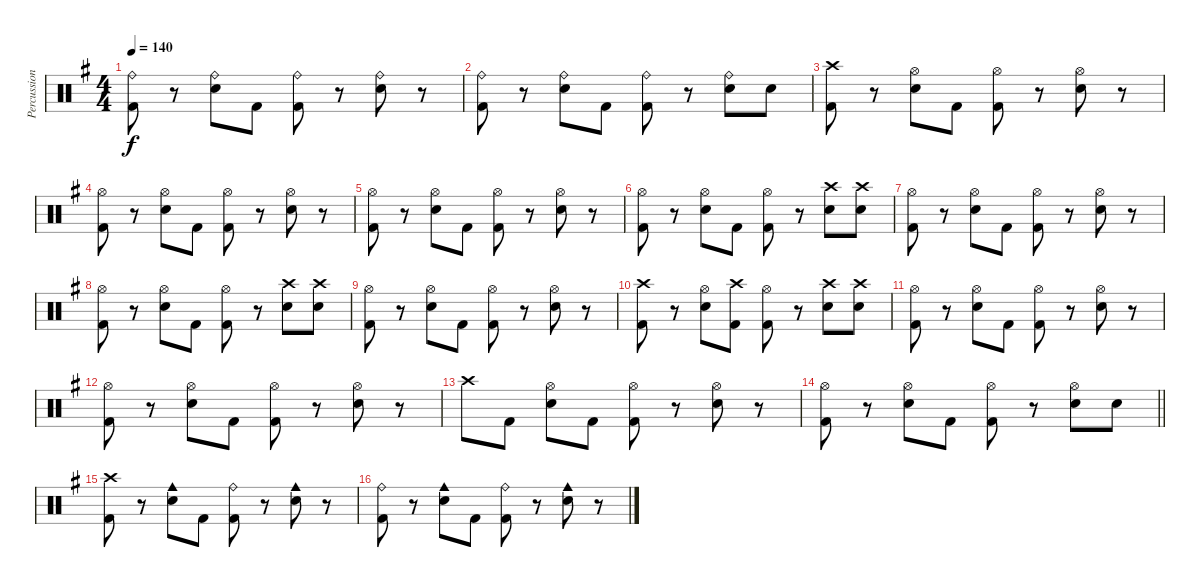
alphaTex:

\track ("Percussion" "Percussion") {instrument percussion}
\staff {score}
\articulation defaults
\ts (4 4)
\tempo 140
\clef neutral
\ks g
("Ride (bell)" "Kick (hit) 2").8{dy f} r.8 ("Ride (bell)" "Snare (hit) 2").8 "Kick (hit) 2".8 ("Ride (bell)" "Kick (hit) 2").8 r.8 ("Ride (bell)" "Snare (hit) 2").8 r.8 |
("Ride (bell)" "Kick (hit) 2").8 r.8 ("Ride (bell)" "Snare (hit) 2").8 "Kick (hit) 2".8 ("Ride (bell)" "Kick (hit) 2").8 r.8 ("Ride (bell)" "Snare (hit) 2").8 "Snare (hit) 2".8 |
("Crash high (hit)" "Kick (hit) 2").8 r.8 ("Hi-Hat (open)" "Snare (hit) 2").8 "Kick (hit) 2".8 ("Hi-Hat (open)" "Kick (hit) 2").8 r.8 ("Hi-Hat (open)" "Snare (hit) 2").8 r.8 |
("Hi-Hat (open)" "Kick (hit) 2").8 r.8 ("Hi-Hat (open)" "Snare (hit) 2").8 "Kick (hit) 2".8 ("Hi-Hat (open)" "Kick (hit) 2").8 r.8 ("Hi-Hat (open)" "Snare (hit) 2").8 r.8 |
("Hi-Hat (open)" "Kick (hit) 2").8 r.8 ("Hi-Hat (open)" "Snare (hit) 2").8 "Kick (hit) 2".8 ("Hi-Hat (open)" "Kick (hit) 2").8 r.8 ("Hi-Hat (open)" "Snare (hit) 2").8 r.8 |
("Hi-Hat (open)" "Kick (hit) 2").8 r.8 ("Hi-Hat (open)" "Snare (hit) 2").8 "Kick (hit) 2".8 ("Hi-Hat (open)" "Kick (hit) 2").8 r.8 ("Crash high (hit)" "Snare (hit) 2").8 ("Crash high (hit)" "Snare (hit) 2").8 |
("Hi-Hat (open)" "Kick (hit) 2").8 r.8 ("Hi-Hat (open)" "Snare (hit) 2").8 "Kick (hit) 2".8 ("Hi-Hat (open)" "Kick (hit) 2").8 r.8 ("Hi-Hat (open)" "Snare (hit) 2").8 r.8 |
("Hi-Hat (open)" "Kick (hit) 2").8 r.8 ("Hi-Hat (open)" "Snare (hit) 2").8 "Kick (hit) 2".8 ("Hi-Hat (open)" "Kick (hit) 2").8 r.8 ("Crash high (hit)" "Snare (hit) 2").8 ("Crash high (hit)" "Snare (hit) 2").8 |
("Hi-Hat (open)" "Kick (hit) 2").8 r.8 ("Hi-Hat (open)" "Snare (hit) 2").8 "Kick (hit) 2".8 ("Hi-Hat (open)" "Kick (hit) 2").8 r.8 ("Hi-Hat (open)" "Snare (hit) 2").8 r.8 |
("Crash high (hit)" "Kick (hit) 2").8 r.8 ("Hi-Hat (open)" "Snare (hit) 2").8 ("Crash high (hit)" "Kick (hit) 2").8 ("Hi-Hat (open)" "Kick (hit) 2").8 r.8 ("Crash high (hit)" "Snare (hit) 2").8 ("Crash high (hit)" "Snare (hit) 2").8 |
("Hi-Hat (open)" "Kick (hit) 2").8 r.8 ("Hi-Hat (open)" "Snare (hit) 2").8 "Kick (hit) 2".8 ("Hi-Hat (open)" "Kick (hit) 2").8 r.8 ("Hi-Hat (open)" "Snare (hit) 2").8 r.8 |
("Hi-Hat (open)" "Kick (hit) 2").8 r.8 ("Hi-Hat (open)" "Snare (hit) 2").8 "Kick (hit) 2".8 ("Hi-Hat (open)" "Kick (hit) 2").8 r.8 ("Hi-Hat (open)" "Snare (hit) 2").8 r.8 |
"Crash high (hit)".8 "Kick (hit) 2".8 ("Hi-Hat (open)" "Snare (hit) 2").8 "Kick (hit) 2".8 ("Hi-Hat (open)" "Kick (hit) 2").8 r.8 ("Hi-Hat (open)" "Snare (hit) 2").8 r.8 |
\barLineRight lightlight
("Hi-Hat (open)" "Kick (hit) 2").8 r.8 ("Hi-Hat (open)" "Snare (hit) 2").8 "Kick (hit) 2".8 ("Hi-Hat (open)" "Kick (hit) 2").8 r.8 ("Hi-Hat (open)" "Snare (hit) 2").8 "Snare (hit) 2".8 |
("Crash high (hit)" "Kick (hit) 2").8 r.8 ("Cowbell medium (hit)" "Snare (hit) 2").8 "Kick (hit) 2".8 ("Ride (bell)" "Kick (hit) 2").8 r.8 ("Cowbell medium (hit)" "Snare (hit) 2").8 r.8 |
("Ride (bell)" "Kick (hit) 2").8 r.8 ("Cowbell medium (hit)" "Snare (hit) 2").8 "Kick (hit) 2".8 ("Ride (bell)" "Kick (hit) 2").8 r.8 ("Cowbell medium (hit)" "Snare (hit) 2").8 r.8
